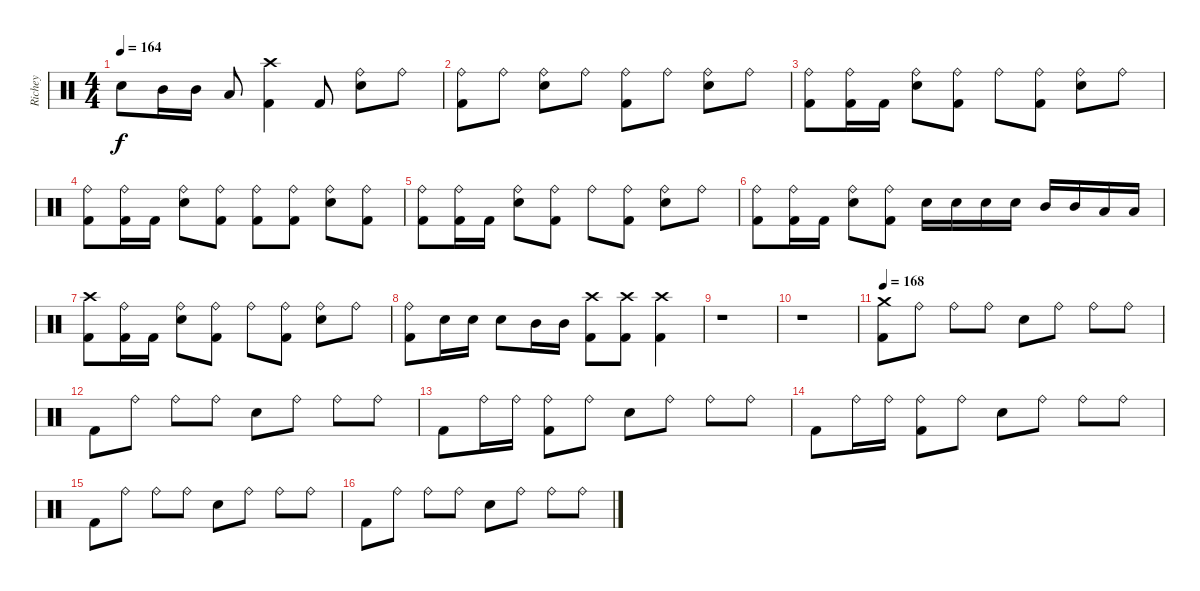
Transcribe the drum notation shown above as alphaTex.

\track ("Richey" "Richey") {instrument percussion}
\staff {score}
\articulation defaults
\ts (4 4)
\tempo 164
\clef neutral
\ks c "Snare (hit) 2".8{dy f} "Mid Tom (hit)".16 "Mid Tom (hit)".16 "Low Tom (hit)".8
("Crash high (hit)" "Kick (hit) 2").4 "Kick (hit) 2".8 ("Ride (bell)" "Snare (hit) 2").8 "Ride (bell)".8 |
("Ride (bell)" "Kick (hit) 2").8 "Ride (bell)".8 ("Ride (bell)" "Snare (hit) 2").8 "Ride (bell)".8 ("Ride (bell)" "Kick (hit) 2").8 "Ride (bell)".8 ("Ride (bell)" "Snare (hit) 2").8 "Ride (bell)".8 |
("Ride (bell)" "Kick (hit) 2").8 ("Ride (bell)" "Kick (hit) 2").16 "Kick (hit) 2".16 ("Ride (bell)" "Snare (hit) 2").8 ("Ride (bell)" "Kick (hit) 2").8 "Ride (bell)".8 ("Ride (bell)" "Kick (hit) 2").8 ("Ride (bell)" "Snare (hit) 2").8 "Ride (bell)".8 |
("Ride (bell)" "Kick (hit) 2").8 ("Ride (bell)" "Kick (hit) 2").16 "Kick (hit) 2".16 ("Ride (bell)" "Snare (hit) 2").8 ("Ride (bell)" "Kick (hit) 2").8 ("Ride (bell)" "Kick (hit) 2").8 ("Ride (bell)" "Kick (hit) 2").8 ("Ride (bell)" "Snare (hit) 2").8 ("Ride (bell)" "Kick (hit) 2").8 |
("Ride (bell)" "Kick (hit) 2").8 ("Ride (bell)" "Kick (hit) 2").16 "Kick (hit) 2".16 ("Ride (bell)" "Snare (hit) 2").8 ("Ride (bell)" "Kick (hit) 2").8 "Ride (bell)".8 ("Ride (bell)" "Kick (hit) 2").8 ("Ride (bell)" "Snare (hit) 2").8 "Ride (bell)".8 |
("Ride (bell)" "Kick (hit) 2").8 ("Ride (bell)" "Kick (hit) 2").16 "Kick (hit) 2".16 ("Ride (bell)" "Snare (hit) 2").8 ("Ride (bell)" "Kick (hit) 2").8 "Snare (hit) 2".16 "Snare (hit) 2".16 "Snare (hit) 2".16 "Snare (hit) 2".16 "Mid Tom (hit)".16 "Mid Tom (hit)".16 "Low Tom (hit)".16 "Low Tom (hit)".16 |
("Crash high (hit)" "Kick (hit) 2").8 ("Ride (bell)" "Kick (hit) 2").16 "Kick (hit) 2".16 ("Ride (bell)" "Snare (hit) 2").8 ("Ride (bell)" "Kick (hit) 2").8 "Ride (bell)".8 ("Ride (bell)" "Kick (hit) 2").8 ("Ride (bell)" "Snare (hit) 2").8 "Ride (bell)".8 |
("Ride (bell)" "Kick (hit) 2").8 "Snare (hit) 2".16 "Snare (hit) 2".16 "Snare (hit) 2".8 "Mid Tom (hit)".16 "Mid Tom (hit)".16 ("Crash high (hit)" "Kick (hit) 2").8 ("Crash high (hit)" "Kick (hit) 2").8 ("Crash high (hit)" "Kick (hit) 2").4 |
r.1 |
r.1 |
\tempo 168
("Crash medium (hit)" "Kick (hit) 2").8 "Ride (bell)".8 "Ride (bell)".8 "Ride (bell)".8 "Snare (hit) 2".8 "Ride (bell)".8 "Ride (bell)".8 "Ride (bell)".8 |
"Kick (hit) 2".8 "Ride (bell)".8 "Ride (bell)".8 "Ride (bell)".8 "Snare (hit) 2".8 "Ride (bell)".8 "Ride (bell)".8 "Ride (bell)".8 |
"Kick (hit) 2".8 "Ride (bell)".16 "Ride (bell)".16 ("Ride (bell)" "Kick (hit) 2").8 "Ride (bell)".8 "Snare (hit) 2".8 "Ride (bell)".8 "Ride (bell)".8 "Ride (bell)".8 |
"Kick (hit) 2".8 "Ride (bell)".16 "Ride (bell)".16 ("Ride (bell)" "Kick (hit) 2").8 "Ride (bell)".8 "Snare (hit) 2".8 "Ride (bell)".8 "Ride (bell)".8 "Ride (bell)".8 |
"Kick (hit) 2".8 "Ride (bell)".8 "Ride (bell)".8 "Ride (bell)".8 "Snare (hit) 2".8 "Ride (bell)".8 "Ride (bell)".8 "Ride (bell)".8 |
"Kick (hit) 2".8 "Ride (bell)".8 "Ride (bell)".8 "Ride (bell)".8 "Snare (hit) 2".8 "Ride (bell)".8 "Ride (bell)".8 "Ride (bell)".8
